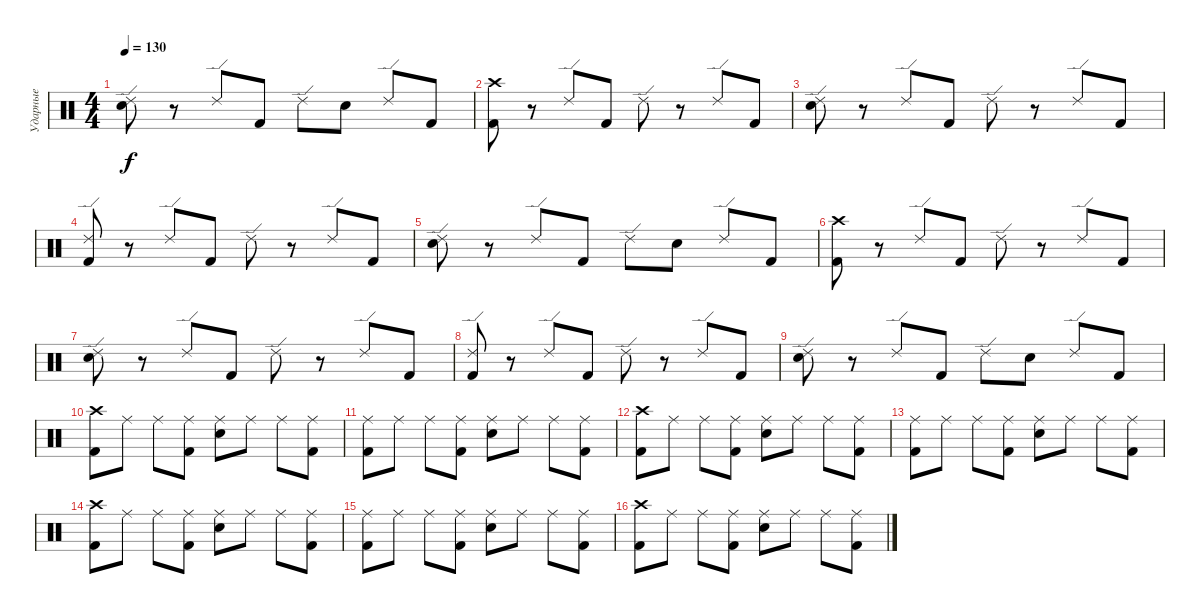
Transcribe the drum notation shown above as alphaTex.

\track ("Ударные" "Ударные") {instrument percussion}
\staff {score}
\articulation defaults
\ts (4 4)
\tempo 130
\clef neutral
\ks c
("Ride (edge) 2" "Electric Snare (hit)").8{dy f} r.8 "Ride (edge) 2".8 "Kick (hit) 2".8 "Ride (edge) 2".8 "Electric Snare (hit)".8 "Ride (edge) 2".8 "Kick (hit) 2".8 |
("Crash high (hit)" "Kick (hit) 2").8 r.8 "Ride (edge) 2".8 "Kick (hit) 2".8 "Ride (edge) 2".8 r.8 "Ride (edge) 2".8 "Kick (hit) 2".8 |
("Ride (edge) 2" "Electric Snare (hit)").8 r.8 "Ride (edge) 2".8 "Kick (hit) 2".8 "Ride (edge) 2".8 r.8 "Ride (edge) 2".8 "Kick (hit) 2".8 |
("Ride (edge) 2" "Kick (hit) 2").8 r.8 "Ride (edge) 2".8 "Kick (hit) 2".8 "Ride (edge) 2".8 r.8 "Ride (edge) 2".8 "Kick (hit) 2".8 |
("Ride (edge) 2" "Electric Snare (hit)").8 r.8 "Ride (edge) 2".8 "Kick (hit) 2".8 "Ride (edge) 2".8 "Electric Snare (hit)".8 "Ride (edge) 2".8 "Kick (hit) 2".8 |
("Crash high (hit)" "Kick (hit) 2").8 r.8 "Ride (edge) 2".8 "Kick (hit) 2".8 "Ride (edge) 2".8 r.8 "Ride (edge) 2".8 "Kick (hit) 2".8 |
("Ride (edge) 2" "Electric Snare (hit)").8 r.8 "Ride (edge) 2".8 "Kick (hit) 2".8 "Ride (edge) 2".8 r.8 "Ride (edge) 2".8 "Kick (hit) 2".8 |
("Ride (edge) 2" "Kick (hit) 2").8 r.8 "Ride (edge) 2".8 "Kick (hit) 2".8 "Ride (edge) 2".8 r.8 "Ride (edge) 2".8 "Kick (hit) 2".8 |
("Ride (edge) 2" "Electric Snare (hit)").8 r.8 "Ride (edge) 2".8 "Kick (hit) 2".8 "Ride (edge) 2".8 "Electric Snare (hit)".8 "Ride (edge) 2".8 "Kick (hit) 2".8 |
("Crash high (hit)" "Kick (hit) 2").8 "Ride (middle)".8 "Ride (middle)".8 ("Ride (middle)" "Kick (hit) 2").8 ("Ride (middle)" "Electric Snare (hit)").8 "Ride (middle)".8 "Ride (middle)".8 ("Ride (middle)" "Kick (hit) 2").8 |
("Ride (middle)" "Kick (hit) 2").8 "Ride (middle)".8 "Ride (middle)".8 ("Ride (middle)" "Kick (hit) 2").8 ("Ride (middle)" "Electric Snare (hit)").8 "Ride (middle)".8 "Ride (middle)".8 ("Ride (middle)" "Kick (hit) 2").8 |
("Crash high (hit)" "Kick (hit) 2").8 "Ride (middle)".8 "Ride (middle)".8 ("Ride (middle)" "Kick (hit) 2").8 ("Ride (middle)" "Electric Snare (hit)").8 "Ride (middle)".8 "Ride (middle)".8 ("Ride (middle)" "Kick (hit) 2").8 |
("Ride (middle)" "Kick (hit) 2").8 "Ride (middle)".8 "Ride (middle)".8 ("Ride (middle)" "Kick (hit) 2").8 ("Ride (middle)" "Electric Snare (hit)").8 "Ride (middle)".8 "Ride (middle)".8 ("Ride (middle)" "Kick (hit) 2").8 |
("Crash high (hit)" "Kick (hit) 2").8 "Ride (middle)".8 "Ride (middle)".8 ("Ride (middle)" "Kick (hit) 2").8 ("Ride (middle)" "Electric Snare (hit)").8 "Ride (middle)".8 "Ride (middle)".8 ("Ride (middle)" "Kick (hit) 2").8 |
("Ride (middle)" "Kick (hit) 2").8 "Ride (middle)".8 "Ride (middle)".8 ("Ride (middle)" "Kick (hit) 2").8 ("Ride (middle)" "Electric Snare (hit)").8 "Ride (middle)".8 "Ride (middle)".8 ("Ride (middle)" "Kick (hit) 2").8 |
("Crash high (hit)" "Kick (hit) 2").8 "Ride (middle)".8 "Ride (middle)".8 ("Ride (middle)" "Kick (hit) 2").8 ("Ride (middle)" "Electric Snare (hit)").8 "Ride (middle)".8 "Ride (middle)".8 ("Ride (middle)" "Kick (hit) 2").8
